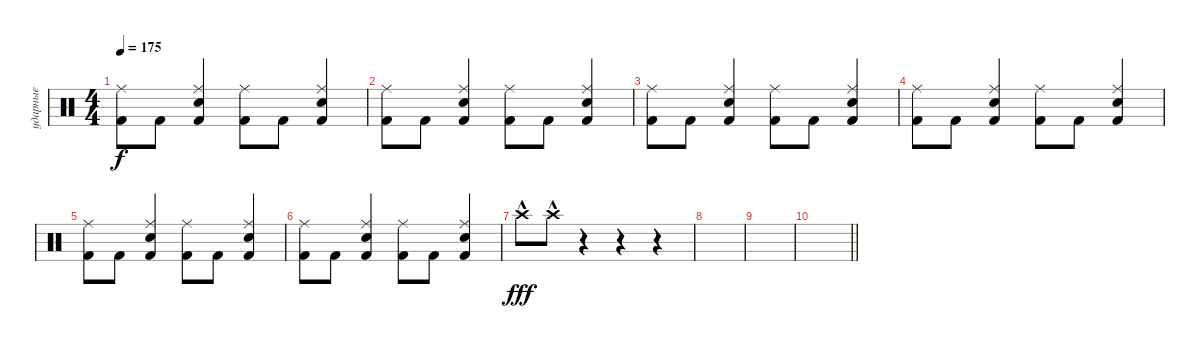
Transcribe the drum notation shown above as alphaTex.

\track ("ударные" "ударные") {instrument percussion}
\staff {score}
\articulation defaults
\ts (4 4)
\tempo 175
\clef neutral
\ks c
("Kick (hit) 2" "Ride (middle)").8{dy f} "Kick (hit) 2".8 ("Electric Snare (hit)" "Ride (middle)" "Kick (hit) 2").4 ("Kick (hit) 2" "Ride (middle)").8 "Kick (hit) 2".8 ("Electric Snare (hit)" "Ride (middle)" "Kick (hit) 2").4 |
("Kick (hit) 2" "Ride (middle)").8 "Kick (hit) 2".8 ("Electric Snare (hit)" "Ride (middle)" "Kick (hit) 2").4 ("Kick (hit) 2" "Ride (middle)").8 "Kick (hit) 2".8 ("Electric Snare (hit)" "Ride (middle)" "Kick (hit) 2").4 |
("Kick (hit) 2" "Ride (middle)").8 "Kick (hit) 2".8 ("Electric Snare (hit)" "Ride (middle)" "Kick (hit) 2").4 ("Kick (hit) 2" "Ride (middle)").8 "Kick (hit) 2".8 ("Electric Snare (hit)" "Ride (middle)" "Kick (hit) 2").4 |
("Kick (hit) 2" "Ride (middle)").8 "Kick (hit) 2".8 ("Electric Snare (hit)" "Ride (middle)" "Kick (hit) 2").4 ("Kick (hit) 2" "Ride (middle)").8 "Kick (hit) 2".8 ("Electric Snare (hit)" "Ride (middle)" "Kick (hit) 2").4 |
("Kick (hit) 2" "Ride (middle)").8 "Kick (hit) 2".8 ("Electric Snare (hit)" "Ride (middle)" "Kick (hit) 2").4 ("Kick (hit) 2" "Ride (middle)").8 "Kick (hit) 2".8 ("Electric Snare (hit)" "Ride (middle)" "Kick (hit) 2").4 |
("Kick (hit) 2" "Ride (middle)").8 "Kick (hit) 2".8 ("Electric Snare (hit)" "Ride (middle)" "Kick (hit) 2").4 ("Kick (hit) 2" "Ride (middle)").8 "Kick (hit) 2".8 ("Electric Snare (hit)" "Ride (middle)" "Kick (hit) 2").4 |
"Crash high (hit)"{hac}.8{dy fff} "Crash high (hit)"{hac}.8 r.4 r.4 r.4 |
|
|
\barLineRight lightlight
